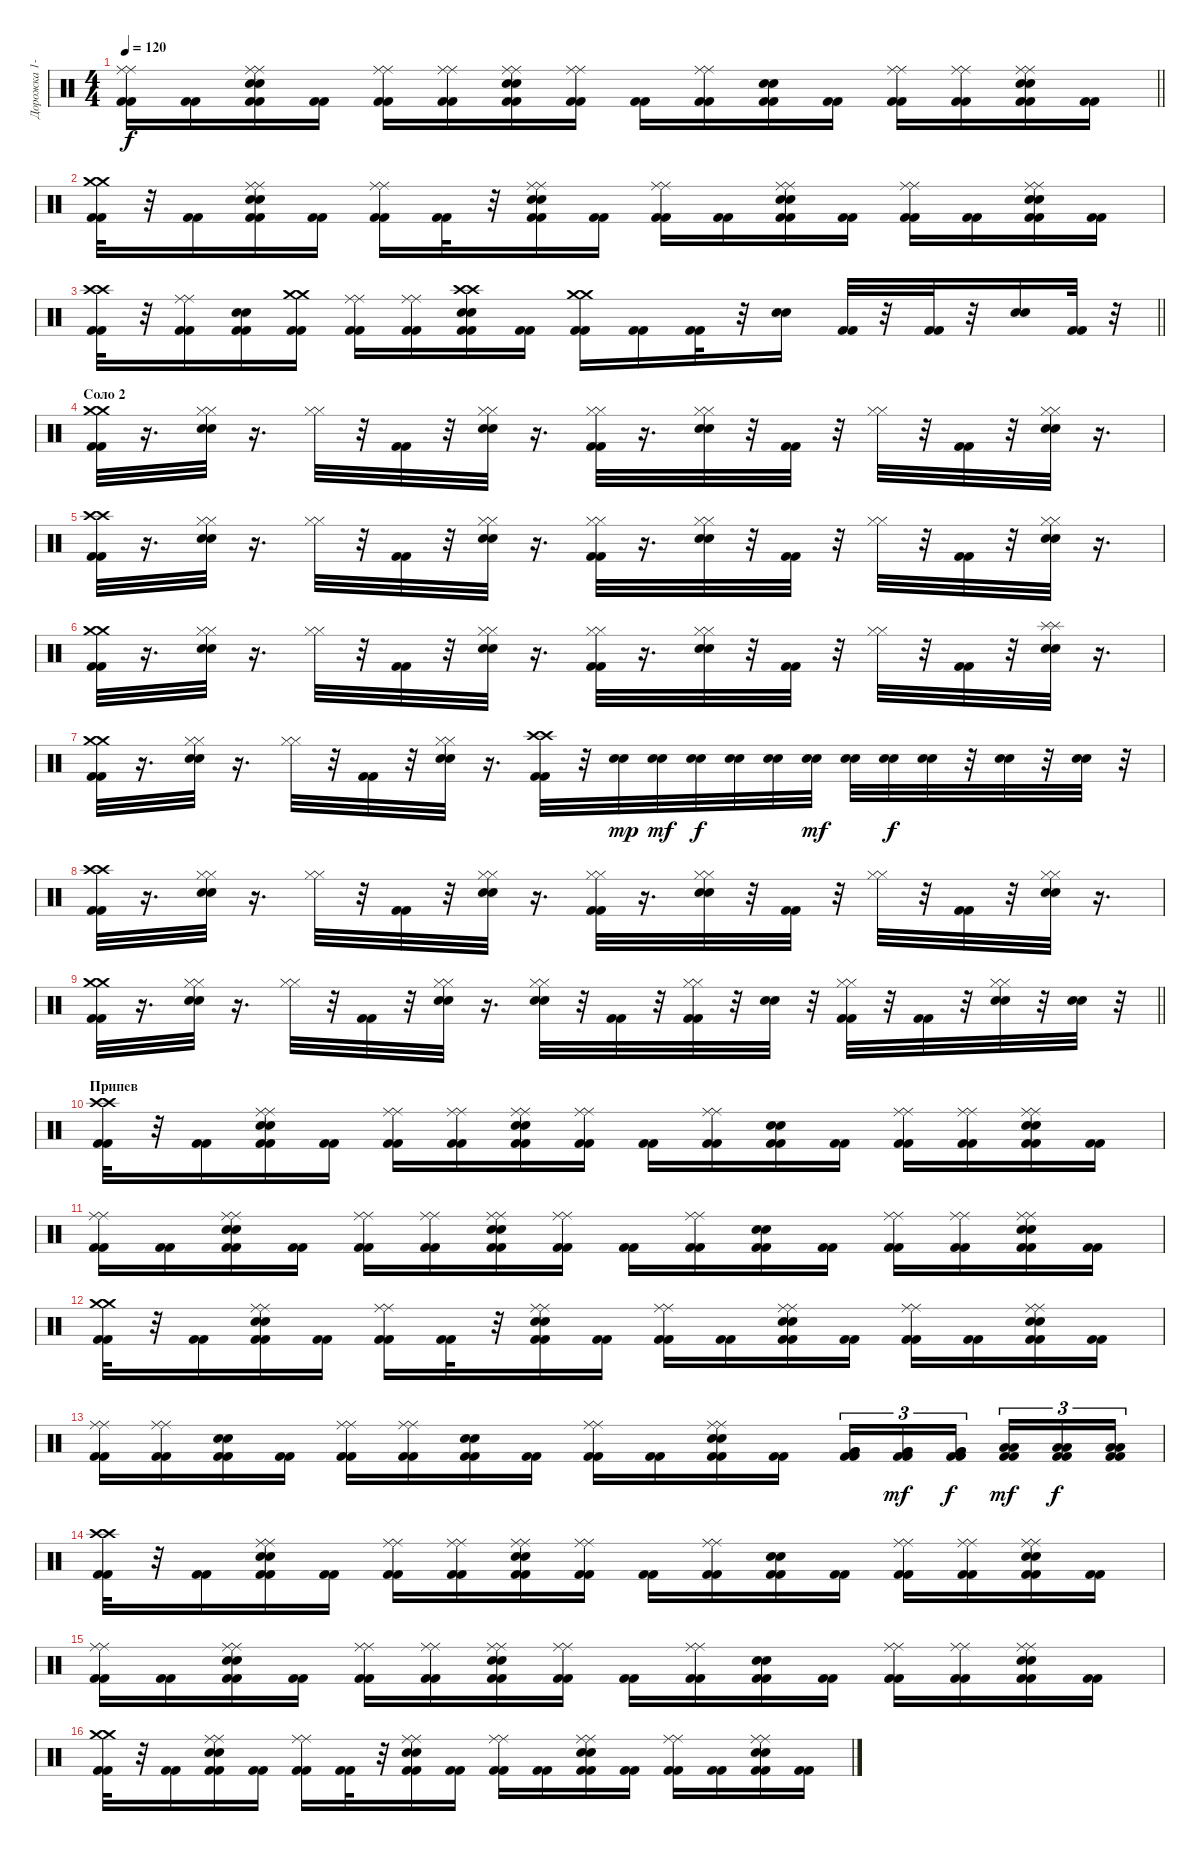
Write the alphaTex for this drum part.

\track ("Дорожка 1-2" "Дорожка 1-") {instrument percussion}
\staff {score}
\articulation defaults
\ts (4 4)
\tempo 120
\clef neutral
\barLineRight lightlight
\ks c
("Kick (hit) 2" "Kick (hit) 2" "Ride (middle)" "Ride (middle)").16{dy f} ("Kick (hit) 2" "Kick (hit) 2").16 ("Kick (hit) 2" "Kick (hit) 2" "Electric Snare (hit)" "Electric Snare (hit)" "Ride (middle)" "Ride (middle)").16 ("Kick (hit) 2" "Kick (hit) 2").16 ("Kick (hit) 2" "Kick (hit) 2" "Ride (middle)" "Ride (middle)").16 ("Kick (hit) 2" "Kick (hit) 2" "Ride (middle)" "Ride (middle)").16 ("Kick (hit) 2" "Kick (hit) 2" "Electric Snare (hit)" "Electric Snare (hit)" "Ride (middle)" "Ride (middle)").16 ("Kick (hit) 2" "Kick (hit) 2" "Ride (middle)" "Ride (middle)").16 ("Kick (hit) 2" "Kick (hit) 2").16 ("Kick (hit) 2" "Kick (hit) 2" "Ride (middle)" "Ride (middle)").16 ("Kick (hit) 2" "Kick (hit) 2" "Electric Snare (hit)" "Electric Snare (hit)").16 ("Kick (hit) 2" "Kick (hit) 2").16 ("Kick (hit) 2" "Kick (hit) 2" "Ride (middle)" "Ride (middle)").16 ("Kick (hit) 2" "Kick (hit) 2" "Ride (middle)" "Ride (middle)").16 ("Kick (hit) 2" "Kick (hit) 2" "Electric Snare (hit)" "Electric Snare (hit)" "Ride (middle)" "Ride (middle)").16 ("Kick (hit) 2" "Kick (hit) 2").16 |
("Kick (hit) 2" "Kick (hit) 2" "Crash medium (hit)" "Crash medium (hit)").32 r.32 ("Kick (hit) 2" "Kick (hit) 2").16 ("Kick (hit) 2" "Kick (hit) 2" "Electric Snare (hit)" "Electric Snare (hit)" "Ride (middle)" "Ride (middle)").16 ("Kick (hit) 2" "Kick (hit) 2").16 ("Kick (hit) 2" "Kick (hit) 2" "Ride (middle)" "Ride (middle)").16 ("Kick (hit) 2" "Kick (hit) 2").32 r.32 ("Kick (hit) 2" "Kick (hit) 2" "Electric Snare (hit)" "Electric Snare (hit)" "Ride (middle)" "Ride (middle)").16 ("Kick (hit) 2" "Kick (hit) 2").16 ("Kick (hit) 2" "Kick (hit) 2" "Ride (middle)" "Ride (middle)").16 ("Kick (hit) 2" "Kick (hit) 2").16 ("Kick (hit) 2" "Kick (hit) 2" "Electric Snare (hit)" "Electric Snare (hit)" "Ride (middle)" "Ride (middle)").16 ("Kick (hit) 2" "Kick (hit) 2").16 ("Kick (hit) 2" "Kick (hit) 2" "Ride (middle)" "Ride (middle)").16 ("Kick (hit) 2" "Kick (hit) 2").16 ("Kick (hit) 2" "Kick (hit) 2" "Electric Snare (hit)" "Electric Snare (hit)" "Ride (middle)" "Ride (middle)").16 ("Kick (hit) 2" "Kick (hit) 2").16 |
\barLineRight lightlight
("Kick (hit) 2" "Kick (hit) 2" "Crash high (hit)" "Crash high (hit)").32 r.32 ("Kick (hit) 2" "Kick (hit) 2" "Ride (middle)" "Ride (middle)").16 ("Kick (hit) 2" "Kick (hit) 2" "Electric Snare (hit)" "Electric Snare (hit)").16 ("Kick (hit) 2" "Kick (hit) 2" "Crash medium (hit)" "Crash medium (hit)").16 ("Kick (hit) 2" "Kick (hit) 2" "Ride (middle)" "Ride (middle)").16 ("Kick (hit) 2" "Kick (hit) 2" "Ride (middle)" "Ride (middle)").16 ("Kick (hit) 2" "Kick (hit) 2" "Electric Snare (hit)" "Electric Snare (hit)" "Crash high (hit)" "Crash high (hit)").16 ("Kick (hit) 2" "Kick (hit) 2").16 ("Kick (hit) 2" "Kick (hit) 2" "Crash medium (hit)" "Crash medium (hit)").16 ("Kick (hit) 2" "Kick (hit) 2").16 ("Kick (hit) 2" "Kick (hit) 2").32 r.32 ("Electric Snare (hit)" "Electric Snare (hit)").16 ("Kick (hit) 2" "Kick (hit) 2").32 r.32 ("Kick (hit) 2" "Kick (hit) 2").32 r.32 ("Electric Snare (hit)" "Electric Snare (hit)").16 ("Kick (hit) 2" "Kick (hit) 2").32 r.32 |
\section ("" "Соло 2")
("Kick (hit) 2" "Kick (hit) 2" "Crash medium (hit)" "Crash medium (hit)").32 r.16{d} ("Electric Snare (hit)" "Electric Snare (hit)" "Hi-Hat (closed)" "Hi-Hat (closed)").32 r.16{d} ("Hi-Hat (closed)" "Hi-Hat (closed)").32 r.32 ("Kick (hit) 2" "Kick (hit) 2").32 r.32 ("Electric Snare (hit)" "Electric Snare (hit)" "Hi-Hat (closed)" "Hi-Hat (closed)").32 r.16{d} ("Kick (hit) 2" "Kick (hit) 2" "Hi-Hat (closed)" "Hi-Hat (closed)").32 r.16{d} ("Electric Snare (hit)" "Electric Snare (hit)" "Hi-Hat (closed)" "Hi-Hat (closed)").32 r.32 ("Kick (hit) 2" "Kick (hit) 2").32 r.32 ("Hi-Hat (closed)" "Hi-Hat (closed)").32 r.32 ("Kick (hit) 2" "Kick (hit) 2").32 r.32 ("Electric Snare (hit)" "Electric Snare (hit)" "Hi-Hat (closed)" "Hi-Hat (closed)").32 r.16{d} |
("Kick (hit) 2" "Kick (hit) 2" "Crash high (hit)" "Crash high (hit)").32 r.16{d} ("Electric Snare (hit)" "Electric Snare (hit)" "Hi-Hat (closed)" "Hi-Hat (closed)").32 r.16{d} ("Hi-Hat (closed)" "Hi-Hat (closed)").32 r.32 ("Kick (hit) 2" "Kick (hit) 2").32 r.32 ("Electric Snare (hit)" "Electric Snare (hit)" "Hi-Hat (closed)" "Hi-Hat (closed)").32 r.16{d} ("Kick (hit) 2" "Kick (hit) 2" "Hi-Hat (closed)" "Hi-Hat (closed)").32 r.16{d} ("Electric Snare (hit)" "Electric Snare (hit)" "Hi-Hat (closed)" "Hi-Hat (closed)").32 r.32 ("Kick (hit) 2" "Kick (hit) 2").32 r.32 ("Hi-Hat (closed)" "Hi-Hat (closed)").32 r.32 ("Kick (hit) 2" "Kick (hit) 2").32 r.32 ("Electric Snare (hit)" "Electric Snare (hit)" "Hi-Hat (closed)" "Hi-Hat (closed)").32 r.16{d} |
("Kick (hit) 2" "Kick (hit) 2" "Crash medium (hit)" "Crash medium (hit)").32 r.16{d} ("Electric Snare (hit)" "Electric Snare (hit)" "Hi-Hat (closed)" "Hi-Hat (closed)").32 r.16{d} ("Hi-Hat (closed)" "Hi-Hat (closed)").32 r.32 ("Kick (hit) 2" "Kick (hit) 2").32 r.32 ("Electric Snare (hit)" "Electric Snare (hit)" "Hi-Hat (closed)" "Hi-Hat (closed)").32 r.16{d} ("Kick (hit) 2" "Kick (hit) 2" "Hi-Hat (closed)" "Hi-Hat (closed)").32 r.16{d} ("Electric Snare (hit)" "Electric Snare (hit)" "Hi-Hat (closed)" "Hi-Hat (closed)").32 r.32 ("Kick (hit) 2" "Kick (hit) 2").32 r.32 ("Hi-Hat (closed)" "Hi-Hat (closed)").32 r.32 ("Kick (hit) 2" "Kick (hit) 2").32 r.32 ("Electric Snare (hit)" "Electric Snare (hit)" "Splash (hit)" "Splash (hit)").32 r.16{d} |
("Kick (hit) 2" "Kick (hit) 2" "Crash medium (hit)" "Crash medium (hit)").32 r.16{d} ("Electric Snare (hit)" "Electric Snare (hit)" "Hi-Hat (closed)" "Hi-Hat (closed)").32 r.16{d} ("Hi-Hat (closed)" "Hi-Hat (closed)").32 r.32 ("Kick (hit) 2" "Kick (hit) 2").32 r.32 ("Electric Snare (hit)" "Electric Snare (hit)" "Hi-Hat (closed)" "Hi-Hat (closed)").32 r.16{d} ("Kick (hit) 2" "Kick (hit) 2" "Crash high (hit)" "Crash high (hit)").32 r.32 ("Electric Snare (hit)" "Electric Snare (hit)").32{dy mp} ("Electric Snare (hit)" "Electric Snare (hit)").32{dy mf} ("Electric Snare (hit)" "Electric Snare (hit)").32{dy f} ("Electric Snare (hit)" "Electric Snare (hit)").32 ("Electric Snare (hit)" "Electric Snare (hit)").32 ("Electric Snare (hit)" "Electric Snare (hit)").32{dy mf} ("Electric Snare (hit)" "Electric Snare (hit)").32 ("Electric Snare (hit)" "Electric Snare (hit)").32{dy f} ("Electric Snare (hit)" "Electric Snare (hit)").32 r.32 ("Electric Snare (hit)" "Electric Snare (hit)").32 r.32 ("Electric Snare (hit)" "Electric Snare (hit)").32 r.32 |
("Kick (hit) 2" "Kick (hit) 2" "Crash high (hit)" "Crash high (hit)").32 r.16{d} ("Electric Snare (hit)" "Electric Snare (hit)" "Hi-Hat (closed)" "Hi-Hat (closed)").32 r.16{d} ("Hi-Hat (closed)" "Hi-Hat (closed)").32 r.32 ("Kick (hit) 2" "Kick (hit) 2").32 r.32 ("Electric Snare (hit)" "Electric Snare (hit)" "Hi-Hat (closed)" "Hi-Hat (closed)").32 r.16{d} ("Kick (hit) 2" "Kick (hit) 2" "Hi-Hat (closed)" "Hi-Hat (closed)").32 r.16{d} ("Electric Snare (hit)" "Electric Snare (hit)" "Hi-Hat (closed)" "Hi-Hat (closed)").32 r.32 ("Kick (hit) 2" "Kick (hit) 2").32 r.32 ("Hi-Hat (closed)" "Hi-Hat (closed)").32 r.32 ("Kick (hit) 2" "Kick (hit) 2").32 r.32 ("Electric Snare (hit)" "Electric Snare (hit)" "Hi-Hat (closed)" "Hi-Hat (closed)").32 r.16{d} |
\barLineRight lightlight
("Kick (hit) 2" "Kick (hit) 2" "Crash medium (hit)" "Crash medium (hit)").32 r.16{d} ("Electric Snare (hit)" "Electric Snare (hit)" "Hi-Hat (closed)" "Hi-Hat (closed)").32 r.16{d} ("Hi-Hat (closed)" "Hi-Hat (closed)").32 r.32 ("Kick (hit) 2" "Kick (hit) 2").32 r.32 ("Electric Snare (hit)" "Electric Snare (hit)" "Hi-Hat (closed)" "Hi-Hat (closed)").32 r.16{d} ("Electric Snare (hit)" "Electric Snare (hit)" "Hi-Hat (closed)" "Hi-Hat (closed)").32 r.32 ("Kick (hit) 2" "Kick (hit) 2").32 r.32 ("Kick (hit) 2" "Kick (hit) 2" "Hi-Hat (closed)" "Hi-Hat (closed)").32 r.32 ("Electric Snare (hit)" "Electric Snare (hit)").32 r.32 ("Kick (hit) 2" "Kick (hit) 2" "Hi-Hat (closed)" "Hi-Hat (closed)").32 r.32 ("Kick (hit) 2" "Kick (hit) 2").32 r.32 ("Electric Snare (hit)" "Electric Snare (hit)" "Hi-Hat (closed)" "Hi-Hat (closed)").32 r.32 ("Electric Snare (hit)" "Electric Snare (hit)").32 r.32 |
\section ("" "Припев")
("Kick (hit) 2" "Kick (hit) 2" "Crash high (hit)" "Crash high (hit)").32 r.32 ("Kick (hit) 2" "Kick (hit) 2").16 ("Kick (hit) 2" "Kick (hit) 2" "Electric Snare (hit)" "Electric Snare (hit)" "Ride (middle)" "Ride (middle)").16 ("Kick (hit) 2" "Kick (hit) 2").16 ("Kick (hit) 2" "Kick (hit) 2" "Ride (middle)" "Ride (middle)").16 ("Kick (hit) 2" "Kick (hit) 2" "Ride (middle)" "Ride (middle)").16 ("Kick (hit) 2" "Kick (hit) 2" "Electric Snare (hit)" "Electric Snare (hit)" "Ride (middle)" "Ride (middle)").16 ("Kick (hit) 2" "Kick (hit) 2" "Ride (middle)" "Ride (middle)").16 ("Kick (hit) 2" "Kick (hit) 2").16 ("Kick (hit) 2" "Kick (hit) 2" "Ride (middle)" "Ride (middle)").16 ("Kick (hit) 2" "Kick (hit) 2" "Electric Snare (hit)" "Electric Snare (hit)").16 ("Kick (hit) 2" "Kick (hit) 2").16 ("Kick (hit) 2" "Kick (hit) 2" "Ride (middle)" "Ride (middle)").16 ("Kick (hit) 2" "Kick (hit) 2" "Ride (middle)" "Ride (middle)").16 ("Kick (hit) 2" "Kick (hit) 2" "Electric Snare (hit)" "Electric Snare (hit)" "Ride (middle)" "Ride (middle)").16 ("Kick (hit) 2" "Kick (hit) 2").16 |
("Kick (hit) 2" "Kick (hit) 2" "Ride (middle)" "Ride (middle)").16 ("Kick (hit) 2" "Kick (hit) 2").16 ("Kick (hit) 2" "Kick (hit) 2" "Electric Snare (hit)" "Electric Snare (hit)" "Ride (middle)" "Ride (middle)").16 ("Kick (hit) 2" "Kick (hit) 2").16 ("Kick (hit) 2" "Kick (hit) 2" "Ride (middle)" "Ride (middle)").16 ("Kick (hit) 2" "Kick (hit) 2" "Ride (middle)" "Ride (middle)").16 ("Kick (hit) 2" "Kick (hit) 2" "Electric Snare (hit)" "Electric Snare (hit)" "Ride (middle)" "Ride (middle)").16 ("Kick (hit) 2" "Kick (hit) 2" "Ride (middle)" "Ride (middle)").16 ("Kick (hit) 2" "Kick (hit) 2").16 ("Kick (hit) 2" "Kick (hit) 2" "Ride (middle)" "Ride (middle)").16 ("Kick (hit) 2" "Kick (hit) 2" "Electric Snare (hit)" "Electric Snare (hit)").16 ("Kick (hit) 2" "Kick (hit) 2").16 ("Kick (hit) 2" "Kick (hit) 2" "Ride (middle)" "Ride (middle)").16 ("Kick (hit) 2" "Kick (hit) 2" "Ride (middle)" "Ride (middle)").16 ("Kick (hit) 2" "Kick (hit) 2" "Electric Snare (hit)" "Electric Snare (hit)" "Ride (middle)" "Ride (middle)").16 ("Kick (hit) 2" "Kick (hit) 2").16 |
("Kick (hit) 2" "Kick (hit) 2" "Crash medium (hit)" "Crash medium (hit)").32 r.32 ("Kick (hit) 2" "Kick (hit) 2").16 ("Kick (hit) 2" "Kick (hit) 2" "Electric Snare (hit)" "Electric Snare (hit)" "Ride (middle)" "Ride (middle)").16 ("Kick (hit) 2" "Kick (hit) 2").16 ("Kick (hit) 2" "Kick (hit) 2" "Ride (middle)" "Ride (middle)").16 ("Kick (hit) 2" "Kick (hit) 2").32 r.32 ("Kick (hit) 2" "Kick (hit) 2" "Electric Snare (hit)" "Electric Snare (hit)" "Ride (middle)" "Ride (middle)").16 ("Kick (hit) 2" "Kick (hit) 2").16 ("Kick (hit) 2" "Kick (hit) 2" "Ride (middle)" "Ride (middle)").16 ("Kick (hit) 2" "Kick (hit) 2").16 ("Kick (hit) 2" "Kick (hit) 2" "Electric Snare (hit)" "Electric Snare (hit)" "Ride (middle)" "Ride (middle)").16 ("Kick (hit) 2" "Kick (hit) 2").16 ("Kick (hit) 2" "Kick (hit) 2" "Ride (middle)" "Ride (middle)").16 ("Kick (hit) 2" "Kick (hit) 2").16 ("Kick (hit) 2" "Kick (hit) 2" "Electric Snare (hit)" "Electric Snare (hit)" "Ride (middle)" "Ride (middle)").16 ("Kick (hit) 2" "Kick (hit) 2").16 |
("Kick (hit) 2" "Kick (hit) 2" "Ride (middle)" "Ride (middle)").16 ("Kick (hit) 2" "Kick (hit) 2" "Ride (middle)" "Ride (middle)").16 ("Kick (hit) 2" "Kick (hit) 2" "Electric Snare (hit)" "Electric Snare (hit)").16 ("Kick (hit) 2" "Kick (hit) 2").16 ("Kick (hit) 2" "Kick (hit) 2" "Ride (middle)" "Ride (middle)").16 ("Kick (hit) 2" "Kick (hit) 2" "Ride (middle)" "Ride (middle)").16 ("Kick (hit) 2" "Kick (hit) 2" "Electric Snare (hit)" "Electric Snare (hit)").16 ("Kick (hit) 2" "Kick (hit) 2").16 ("Kick (hit) 2" "Kick (hit) 2" "Ride (middle)" "Ride (middle)").16 ("Kick (hit) 2" "Kick (hit) 2").16 ("Kick (hit) 2" "Kick (hit) 2" "Electric Snare (hit)" "Electric Snare (hit)" "Ride (middle)" "Ride (middle)").16 ("Kick (hit) 2" "Kick (hit) 2").16 ("Kick (hit) 2" "Kick (hit) 2" "Very Low Tom (hit)" "Very Low Tom (hit)").16{tu (3 2)} ("Kick (hit) 2" "Kick (hit) 2" "Very Low Tom (hit)" "Very Low Tom (hit)").16{tu (3 2) dy mf} ("Kick (hit) 2" "Kick (hit) 2" "Very Low Tom (hit)" "Very Low Tom (hit)").16{tu (3 2) dy f beam splitsecondary} ("Kick (hit) 2" "Kick (hit) 2" "Low Tom (hit)" "Low Tom (hit)").16{tu (3 2) dy mf} ("Kick (hit) 2" "Kick (hit) 2" "Low Tom (hit)" "Low Tom (hit)").16{tu (3 2) dy f} ("Kick (hit) 2" "Kick (hit) 2" "Low Tom (hit)" "Low Tom (hit)").16{tu (3 2)} |
("Kick (hit) 2" "Kick (hit) 2" "Crash high (hit)" "Crash high (hit)").32 r.32 ("Kick (hit) 2" "Kick (hit) 2").16 ("Kick (hit) 2" "Kick (hit) 2" "Electric Snare (hit)" "Electric Snare (hit)" "Ride (middle)" "Ride (middle)").16 ("Kick (hit) 2" "Kick (hit) 2").16 ("Kick (hit) 2" "Kick (hit) 2" "Ride (middle)" "Ride (middle)").16 ("Kick (hit) 2" "Kick (hit) 2" "Ride (middle)" "Ride (middle)").16 ("Kick (hit) 2" "Kick (hit) 2" "Electric Snare (hit)" "Electric Snare (hit)" "Ride (middle)" "Ride (middle)").16 ("Kick (hit) 2" "Kick (hit) 2" "Ride (middle)" "Ride (middle)").16 ("Kick (hit) 2" "Kick (hit) 2").16 ("Kick (hit) 2" "Kick (hit) 2" "Ride (middle)" "Ride (middle)").16 ("Kick (hit) 2" "Kick (hit) 2" "Electric Snare (hit)" "Electric Snare (hit)").16 ("Kick (hit) 2" "Kick (hit) 2").16 ("Kick (hit) 2" "Kick (hit) 2" "Ride (middle)" "Ride (middle)").16 ("Kick (hit) 2" "Kick (hit) 2" "Ride (middle)" "Ride (middle)").16 ("Kick (hit) 2" "Kick (hit) 2" "Electric Snare (hit)" "Electric Snare (hit)" "Ride (middle)" "Ride (middle)").16 ("Kick (hit) 2" "Kick (hit) 2").16 |
("Kick (hit) 2" "Kick (hit) 2" "Ride (middle)" "Ride (middle)").16 ("Kick (hit) 2" "Kick (hit) 2").16 ("Kick (hit) 2" "Kick (hit) 2" "Electric Snare (hit)" "Electric Snare (hit)" "Ride (middle)" "Ride (middle)").16 ("Kick (hit) 2" "Kick (hit) 2").16 ("Kick (hit) 2" "Kick (hit) 2" "Ride (middle)" "Ride (middle)").16 ("Kick (hit) 2" "Kick (hit) 2" "Ride (middle)" "Ride (middle)").16 ("Kick (hit) 2" "Kick (hit) 2" "Electric Snare (hit)" "Electric Snare (hit)" "Ride (middle)" "Ride (middle)").16 ("Kick (hit) 2" "Kick (hit) 2" "Ride (middle)" "Ride (middle)").16 ("Kick (hit) 2" "Kick (hit) 2").16 ("Kick (hit) 2" "Kick (hit) 2" "Ride (middle)" "Ride (middle)").16 ("Kick (hit) 2" "Kick (hit) 2" "Electric Snare (hit)" "Electric Snare (hit)").16 ("Kick (hit) 2" "Kick (hit) 2").16 ("Kick (hit) 2" "Kick (hit) 2" "Ride (middle)" "Ride (middle)").16 ("Kick (hit) 2" "Kick (hit) 2" "Ride (middle)" "Ride (middle)").16 ("Kick (hit) 2" "Kick (hit) 2" "Electric Snare (hit)" "Electric Snare (hit)" "Ride (middle)" "Ride (middle)").16 ("Kick (hit) 2" "Kick (hit) 2").16 |
("Kick (hit) 2" "Kick (hit) 2" "Crash medium (hit)" "Crash medium (hit)").32 r.32 ("Kick (hit) 2" "Kick (hit) 2").16 ("Kick (hit) 2" "Kick (hit) 2" "Electric Snare (hit)" "Electric Snare (hit)" "Ride (middle)" "Ride (middle)").16 ("Kick (hit) 2" "Kick (hit) 2").16 ("Kick (hit) 2" "Kick (hit) 2" "Ride (middle)" "Ride (middle)").16 ("Kick (hit) 2" "Kick (hit) 2").32 r.32 ("Kick (hit) 2" "Kick (hit) 2" "Electric Snare (hit)" "Electric Snare (hit)" "Ride (middle)" "Ride (middle)").16 ("Kick (hit) 2" "Kick (hit) 2").16 ("Kick (hit) 2" "Kick (hit) 2" "Ride (middle)" "Ride (middle)").16 ("Kick (hit) 2" "Kick (hit) 2").16 ("Kick (hit) 2" "Kick (hit) 2" "Electric Snare (hit)" "Electric Snare (hit)" "Ride (middle)" "Ride (middle)").16 ("Kick (hit) 2" "Kick (hit) 2").16 ("Kick (hit) 2" "Kick (hit) 2" "Ride (middle)" "Ride (middle)").16 ("Kick (hit) 2" "Kick (hit) 2").16 ("Kick (hit) 2" "Kick (hit) 2" "Electric Snare (hit)" "Electric Snare (hit)" "Ride (middle)" "Ride (middle)").16 ("Kick (hit) 2" "Kick (hit) 2").16
